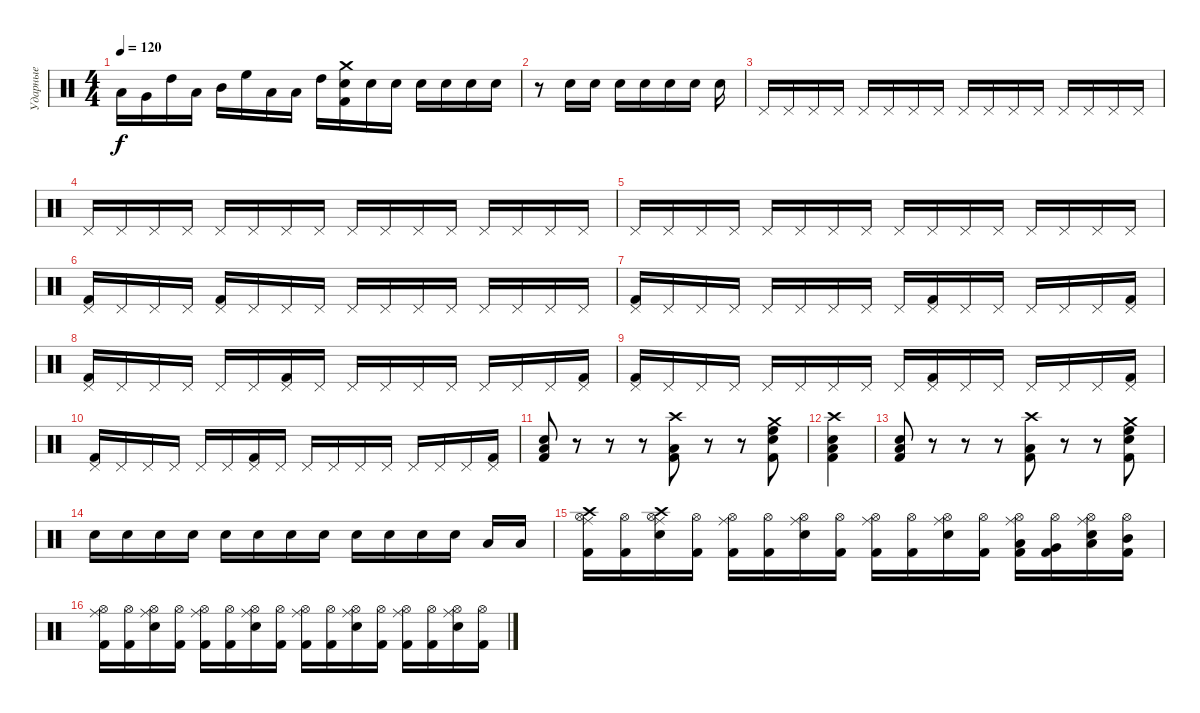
\track ("Ударные" "Ударные") {instrument percussion}
\staff {score}
\articulation defaults
\ts (4 4)
\tempo 120
\clef neutral
\ks c "Low Floor Tom (hit)".16{dy f} "Very Low Tom (hit)".16 "High Tom (hit)".16 "Low Tom (hit)".16 "Mid Tom (hit)".16 "High Floor Tom (hit)".16 "Low Floor Tom (hit)".16 "Low Tom (hit)".16 "High Tom (hit)".16
("Electric Snare (hit)" "Kick (hit) 2" "Crash medium (hit)").16 "Electric Snare (hit)".16 "Electric Snare (hit)".16 "Electric Snare (hit)".16 "Electric Snare (hit)".16 "Electric Snare (hit)".16 "Electric Snare (hit)".16 |
r.8 "Electric Snare (hit)".16 "Electric Snare (hit)".16 "Electric Snare (hit)".16 "Electric Snare (hit)".16 "Electric Snare (hit)".16 "Electric Snare (hit)".16 "Electric Snare (hit)".16 |
"Pedal Hi-Hat (hit)".16 "Pedal Hi-Hat (hit)".16 "Pedal Hi-Hat (hit)".16 "Pedal Hi-Hat (hit)".16 "Pedal Hi-Hat (hit)".16 "Pedal Hi-Hat (hit)".16 "Pedal Hi-Hat (hit)".16 "Pedal Hi-Hat (hit)".16 "Pedal Hi-Hat (hit)".16 "Pedal Hi-Hat (hit)".16 "Pedal Hi-Hat (hit)".16 "Pedal Hi-Hat (hit)".16 "Pedal Hi-Hat (hit)".16 "Pedal Hi-Hat (hit)".16 "Pedal Hi-Hat (hit)".16 "Pedal Hi-Hat (hit)".16 |
"Pedal Hi-Hat (hit)".16 "Pedal Hi-Hat (hit)".16 "Pedal Hi-Hat (hit)".16 "Pedal Hi-Hat (hit)".16 "Pedal Hi-Hat (hit)".16 "Pedal Hi-Hat (hit)".16 "Pedal Hi-Hat (hit)".16 "Pedal Hi-Hat (hit)".16 "Pedal Hi-Hat (hit)".16 "Pedal Hi-Hat (hit)".16 "Pedal Hi-Hat (hit)".16 "Pedal Hi-Hat (hit)".16 "Pedal Hi-Hat (hit)".16 "Pedal Hi-Hat (hit)".16 "Pedal Hi-Hat (hit)".16 "Pedal Hi-Hat (hit)".16 |
"Pedal Hi-Hat (hit)".16 "Pedal Hi-Hat (hit)".16 "Pedal Hi-Hat (hit)".16 "Pedal Hi-Hat (hit)".16 "Pedal Hi-Hat (hit)".16 "Pedal Hi-Hat (hit)".16 "Pedal Hi-Hat (hit)".16 "Pedal Hi-Hat (hit)".16 "Pedal Hi-Hat (hit)".16 "Pedal Hi-Hat (hit)".16 "Pedal Hi-Hat (hit)".16 "Pedal Hi-Hat (hit)".16 "Pedal Hi-Hat (hit)".16 "Pedal Hi-Hat (hit)".16 "Pedal Hi-Hat (hit)".16 "Pedal Hi-Hat (hit)".16 |
("Kick (hit) 2" "Pedal Hi-Hat (hit)").16 "Pedal Hi-Hat (hit)".16 "Pedal Hi-Hat (hit)".16 "Pedal Hi-Hat (hit)".16 ("Kick (hit) 2" "Pedal Hi-Hat (hit)").16 "Pedal Hi-Hat (hit)".16 "Pedal Hi-Hat (hit)".16 "Pedal Hi-Hat (hit)".16 "Pedal Hi-Hat (hit)".16 "Pedal Hi-Hat (hit)".16 "Pedal Hi-Hat (hit)".16 "Pedal Hi-Hat (hit)".16 "Pedal Hi-Hat (hit)".16 "Pedal Hi-Hat (hit)".16 "Pedal Hi-Hat (hit)".16 "Pedal Hi-Hat (hit)".16 |
("Kick (hit) 2" "Pedal Hi-Hat (hit)").16 "Pedal Hi-Hat (hit)".16 "Pedal Hi-Hat (hit)".16 "Pedal Hi-Hat (hit)".16 "Pedal Hi-Hat (hit)".16 "Pedal Hi-Hat (hit)".16 "Pedal Hi-Hat (hit)".16 "Pedal Hi-Hat (hit)".16 "Pedal Hi-Hat (hit)".16 ("Kick (hit) 2" "Pedal Hi-Hat (hit)").16 "Pedal Hi-Hat (hit)".16 "Pedal Hi-Hat (hit)".16 "Pedal Hi-Hat (hit)".16 "Pedal Hi-Hat (hit)".16 "Pedal Hi-Hat (hit)".16 ("Kick (hit) 2" "Pedal Hi-Hat (hit)").16 |
("Kick (hit) 2" "Pedal Hi-Hat (hit)").16 "Pedal Hi-Hat (hit)".16 "Pedal Hi-Hat (hit)".16 "Pedal Hi-Hat (hit)".16 "Pedal Hi-Hat (hit)".16 "Pedal Hi-Hat (hit)".16 ("Kick (hit) 2" "Pedal Hi-Hat (hit)").16 "Pedal Hi-Hat (hit)".16 "Pedal Hi-Hat (hit)".16 "Pedal Hi-Hat (hit)".16 "Pedal Hi-Hat (hit)".16 "Pedal Hi-Hat (hit)".16 "Pedal Hi-Hat (hit)".16 "Pedal Hi-Hat (hit)".16 "Pedal Hi-Hat (hit)".16 ("Kick (hit) 2" "Pedal Hi-Hat (hit)").16 |
("Kick (hit) 2" "Pedal Hi-Hat (hit)").16 "Pedal Hi-Hat (hit)".16 "Pedal Hi-Hat (hit)".16 "Pedal Hi-Hat (hit)".16 "Pedal Hi-Hat (hit)".16 "Pedal Hi-Hat (hit)".16 "Pedal Hi-Hat (hit)".16 "Pedal Hi-Hat (hit)".16 "Pedal Hi-Hat (hit)".16 ("Kick (hit) 2" "Pedal Hi-Hat (hit)").16 "Pedal Hi-Hat (hit)".16 "Pedal Hi-Hat (hit)".16 "Pedal Hi-Hat (hit)".16 "Pedal Hi-Hat (hit)".16 "Pedal Hi-Hat (hit)".16 ("Kick (hit) 2" "Pedal Hi-Hat (hit)").16 |
("Kick (hit) 2" "Pedal Hi-Hat (hit)").16 "Pedal Hi-Hat (hit)".16 "Pedal Hi-Hat (hit)".16 "Pedal Hi-Hat (hit)".16 "Pedal Hi-Hat (hit)".16 "Pedal Hi-Hat (hit)".16 ("Kick (hit) 2" "Pedal Hi-Hat (hit)").16 "Pedal Hi-Hat (hit)".16 "Pedal Hi-Hat (hit)".16 "Pedal Hi-Hat (hit)".16 "Pedal Hi-Hat (hit)".16 "Pedal Hi-Hat (hit)".16 "Pedal Hi-Hat (hit)".16 "Pedal Hi-Hat (hit)".16 "Pedal Hi-Hat (hit)".16 ("Kick (hit) 2" "Pedal Hi-Hat (hit)").16 |
("Low Floor Tom (hit)" "Electric Snare (hit)" "Kick (hit) 2").8 r.8 r.8 r.8 ("Kick (hit) 2" "Low Tom (hit)" "Crash high (hit)").8 r.8 r.8 ("Kick (hit) 2" "Snare (hit) 2" "High Floor Tom (hit)" "Crash medium (hit)").8 |
("Kick (hit) 2" "Snare (hit) 2" "Low Floor Tom (hit)" "Crash high (hit)").4 |
("Low Floor Tom (hit)" "Electric Snare (hit)" "Kick (hit) 2").8 r.8 r.8 r.8 ("Kick (hit) 2" "Low Tom (hit)" "Crash high (hit)").8 r.8 r.8 ("Kick (hit) 2" "Snare (hit) 2" "High Floor Tom (hit)" "Crash medium (hit)").8 |
"Electric Snare (hit)".16 "Electric Snare (hit)".16 "Electric Snare (hit)".16 "Electric Snare (hit)".16 "Electric Snare (hit)".16 "Electric Snare (hit)".16 "Electric Snare (hit)".16 "Electric Snare (hit)".16 "Electric Snare (hit)".16 "Electric Snare (hit)".16 "Electric Snare (hit)".16 "Electric Snare (hit)".16 "Low Floor Tom (hit)".16 "Low Tom (hit)".16 |
("Hi-Hat (open)" "Ride (middle)" "Kick (hit) 2" "Crash high (hit)").16 ("Hi-Hat (open)" "Kick (hit) 2").16 ("Hi-Hat (open)" "Ride (middle)" "Snare (hit) 2" "Crash high (hit)").16 ("Hi-Hat (open)" "Kick (hit) 2").16 ("Hi-Hat (open)" "Ride (middle)" "Kick (hit) 2").16 ("Hi-Hat (open)" "Kick (hit) 2").16 ("Hi-Hat (open)" "Ride (middle)" "Snare (hit) 2").16 ("Hi-Hat (open)" "Kick (hit) 2").16 ("Hi-Hat (open)" "Ride (middle)" "Kick (hit) 2").16 ("Hi-Hat (open)" "Kick (hit) 2").16 ("Hi-Hat (open)" "Ride (middle)" "Snare (hit) 2").16 ("Hi-Hat (open)" "Kick (hit) 2").16 ("Hi-Hat (open)" "Ride (middle)" "Kick (hit) 2" "Low Floor Tom (hit)").16 ("Hi-Hat (open)" "Kick (hit) 2" "Very Low Tom (hit)").16 ("Hi-Hat (open)" "Ride (middle)" "Snare (hit) 2" "Low Tom (hit)").16 ("Hi-Hat (open)" "Kick (hit) 2" "Mid Tom (hit)").16 |
("Hi-Hat (open)" "Ride (middle)" "Kick (hit) 2").16 ("Hi-Hat (open)" "Kick (hit) 2").16 ("Hi-Hat (open)" "Ride (middle)" "Snare (hit) 2").16 ("Hi-Hat (open)" "Kick (hit) 2").16 ("Hi-Hat (open)" "Ride (middle)" "Kick (hit) 2").16 ("Hi-Hat (open)" "Kick (hit) 2").16 ("Hi-Hat (open)" "Ride (middle)" "Snare (hit) 2").16 ("Hi-Hat (open)" "Kick (hit) 2").16 ("Hi-Hat (open)" "Ride (middle)" "Kick (hit) 2").16 ("Hi-Hat (open)" "Kick (hit) 2").16 ("Hi-Hat (open)" "Ride (middle)" "Snare (hit) 2").16 ("Hi-Hat (open)" "Kick (hit) 2").16 ("Hi-Hat (open)" "Ride (middle)" "Kick (hit) 2").16 ("Hi-Hat (open)" "Kick (hit) 2").16 ("Hi-Hat (open)" "Ride (middle)" "Snare (hit) 2").16 ("Hi-Hat (open)" "Kick (hit) 2").16
